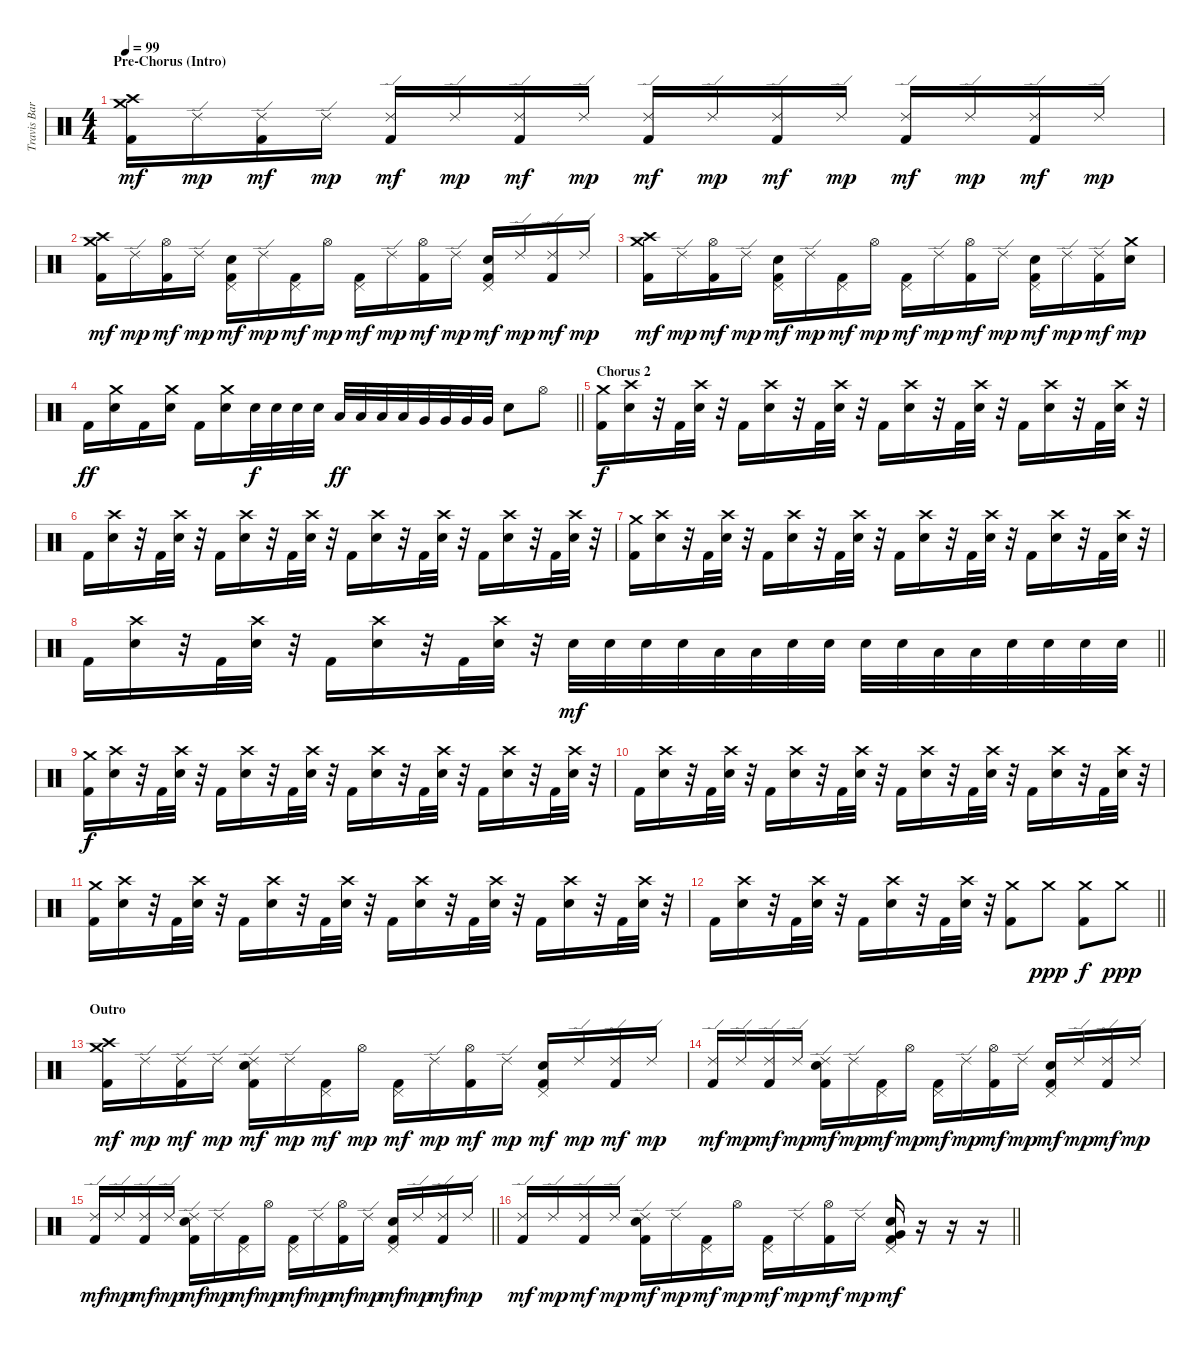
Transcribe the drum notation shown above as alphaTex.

\track ("Travis Barker" "Travis Bar") {instrument percussion}
\staff {score}
\articulation defaults
\ts (4 4)
\section ("" "Pre-Chorus (Intro)")
\tempo 99
\clef neutral
\ks c
("Crash medium (hit)" "Crash high (hit)" "Kick (hit) 2").16{dy mf} "Ride (edge) 2".16{dy mp} ("Ride (edge) 2" "Kick (hit) 2").16{dy mf} "Ride (edge) 2".16{dy mp} ("Ride (edge) 2" "Kick (hit) 2").16{dy mf} "Ride (edge) 2".16{dy mp} ("Ride (edge) 2" "Kick (hit) 2").16{dy mf} "Ride (edge) 2".16{dy mp} ("Ride (edge) 2" "Kick (hit) 2").16{dy mf} "Ride (edge) 2".16{dy mp} ("Ride (edge) 2" "Kick (hit) 2").16{dy mf} "Ride (edge) 2".16{dy mp} ("Ride (edge) 2" "Kick (hit) 2").16{dy mf} "Ride (edge) 2".16{dy mp} ("Ride (edge) 2" "Kick (hit) 2").16{dy mf} "Ride (edge) 2".16{dy mp} |
("Crash medium (hit)" "Crash high (hit)" "Kick (hit) 2").16{dy mf} "Ride (edge) 2".16{dy mp} ("Hi-Hat (open)" "Kick (hit) 2").16{dy mf} "Ride (edge) 2".16{dy mp} ("Pedal Hi-Hat (hit)" "Electric Snare (hit)" "Kick (hit) 2").16{dy mf} "Ride (edge) 2".16{dy mp} ("Pedal Hi-Hat (hit)" "Kick (hit) 2").16{dy mf} "Hi-Hat (open)".16{dy mp} ("Pedal Hi-Hat (hit)" "Kick (hit) 2").16{dy mf} "Ride (edge) 2".16{dy mp} ("Hi-Hat (open)" "Kick (hit) 2").16{dy mf} "Ride (edge) 2".16{dy mp} ("Pedal Hi-Hat (hit)" "Electric Snare (hit)" "Kick (hit) 2").16{dy mf} "Ride (edge) 2".16{dy mp} ("Ride (edge) 2" "Kick (hit) 2").16{dy mf} "Ride (edge) 2".16{dy mp} |
("Crash medium (hit)" "Crash high (hit)" "Kick (hit) 2").16{dy mf} "Ride (edge) 2".16{dy mp} ("Hi-Hat (open)" "Kick (hit) 2").16{dy mf} "Ride (edge) 2".16{dy mp} ("Pedal Hi-Hat (hit)" "Electric Snare (hit)" "Kick (hit) 2").16{dy mf} "Ride (edge) 2".16{dy mp} ("Pedal Hi-Hat (hit)" "Kick (hit) 2").16{dy mf} "Hi-Hat (open)".16{dy mp} ("Pedal Hi-Hat (hit)" "Kick (hit) 2").16{dy mf} "Ride (edge) 2".16{dy mp} ("Hi-Hat (open)" "Kick (hit) 2").16{dy mf} "Ride (edge) 2".16{dy mp} ("Pedal Hi-Hat (hit)" "Electric Snare (hit)" "Kick (hit) 2").16{dy mf} "Ride (edge) 2".16{dy mp} ("Ride (edge) 2" "Kick (hit) 2").16{dy mf} ("Crash medium (hit)" "Electric Snare (hit)").16{dy mp} |
\barLineRight lightlight "Kick (hit) 2".16{dy ff}
("Crash medium (hit)" "Electric Snare (hit)").16 "Kick (hit) 2".16 ("Crash medium (hit)" "Electric Snare (hit)").16 "Kick (hit) 2".16 ("Crash medium (hit)" "Electric Snare (hit)").16 "Electric Snare (hit)".32{dy f} "Electric Snare (hit)".32 "Electric Snare (hit)".32 "Electric Snare (hit)".32 "Low Tom (hit)".32{dy ff} "Low Tom (hit)".32 "Low Tom (hit)".32 "Low Tom (hit)".32 "Very Low Tom (hit)".32 "Very Low Tom (hit)".32 "Very Low Tom (hit)".32 "Very Low Tom (hit)".32 "Electric Snare (hit)".8 "Hi-Hat (open)".8 |
\section ("" "Chorus 2")
("Crash medium (hit)" "Kick (hit) 2").16{dy f} ("Crash high (hit)" "Electric Snare (hit)").16 r.32 "Kick (hit) 2".32 ("Crash high (hit)" "Electric Snare (hit)").32 r.32 "Kick (hit) 2".16 ("Crash high (hit)" "Electric Snare (hit)").16 r.32 "Kick (hit) 2".32 ("Crash high (hit)" "Electric Snare (hit)").32 r.32 "Kick (hit) 2".16 ("Crash high (hit)" "Electric Snare (hit)").16 r.32 "Kick (hit) 2".32 ("Crash high (hit)" "Electric Snare (hit)").32 r.32 "Kick (hit) 2".16 ("Crash high (hit)" "Electric Snare (hit)").16 r.32 "Kick (hit) 2".32 ("Crash high (hit)" "Electric Snare (hit)").32 r.32 |
"Kick (hit) 2".16 ("Crash high (hit)" "Electric Snare (hit)").16 r.32 "Kick (hit) 2".32 ("Crash high (hit)" "Electric Snare (hit)").32 r.32 "Kick (hit) 2".16 ("Crash high (hit)" "Electric Snare (hit)").16 r.32 "Kick (hit) 2".32 ("Crash high (hit)" "Electric Snare (hit)").32 r.32 "Kick (hit) 2".16 ("Crash high (hit)" "Electric Snare (hit)").16 r.32 "Kick (hit) 2".32 ("Crash high (hit)" "Electric Snare (hit)").32 r.32 "Kick (hit) 2".16 ("Crash high (hit)" "Electric Snare (hit)").16 r.32 "Kick (hit) 2".32 ("Crash high (hit)" "Electric Snare (hit)").32 r.32 |
("Crash medium (hit)" "Kick (hit) 2").16 ("Crash high (hit)" "Electric Snare (hit)").16 r.32 "Kick (hit) 2".32 ("Crash high (hit)" "Electric Snare (hit)").32 r.32 "Kick (hit) 2".16 ("Crash high (hit)" "Electric Snare (hit)").16 r.32 "Kick (hit) 2".32 ("Crash high (hit)" "Electric Snare (hit)").32 r.32 "Kick (hit) 2".16 ("Crash high (hit)" "Electric Snare (hit)").16 r.32 "Kick (hit) 2".32 ("Crash high (hit)" "Electric Snare (hit)").32 r.32 "Kick (hit) 2".16 ("Crash high (hit)" "Electric Snare (hit)").16 r.32 "Kick (hit) 2".32 ("Crash high (hit)" "Electric Snare (hit)").32 r.32 |
\barLineRight lightlight "Kick (hit) 2".16
("Crash high (hit)" "Electric Snare (hit)").16 r.32 "Kick (hit) 2".32 ("Crash high (hit)" "Electric Snare (hit)").32 r.32 "Kick (hit) 2".16 ("Crash high (hit)" "Electric Snare (hit)").16 r.32 "Kick (hit) 2".32 ("Crash high (hit)" "Electric Snare (hit)").32 r.32 "Electric Snare (hit)".32{dy mf} "Electric Snare (hit)".32 "Electric Snare (hit)".32 "Electric Snare (hit)".32 "Low Tom (hit)".32 "Low Tom (hit)".32 "Electric Snare (hit)".32 "Electric Snare (hit)".32 "Electric Snare (hit)".32 "Electric Snare (hit)".32 "Low Tom (hit)".32 "Low Tom (hit)".32 "Electric Snare (hit)".32 "Electric Snare (hit)".32 "Electric Snare (hit)".32 "Electric Snare (hit)".32 |
("Crash medium (hit)" "Kick (hit) 2").16{dy f} ("Crash high (hit)" "Electric Snare (hit)").16 r.32 "Kick (hit) 2".32 ("Crash high (hit)" "Electric Snare (hit)").32 r.32 "Kick (hit) 2".16 ("Crash high (hit)" "Electric Snare (hit)").16 r.32 "Kick (hit) 2".32 ("Crash high (hit)" "Electric Snare (hit)").32 r.32 "Kick (hit) 2".16 ("Crash high (hit)" "Electric Snare (hit)").16 r.32 "Kick (hit) 2".32 ("Crash high (hit)" "Electric Snare (hit)").32 r.32 "Kick (hit) 2".16 ("Crash high (hit)" "Electric Snare (hit)").16 r.32 "Kick (hit) 2".32 ("Crash high (hit)" "Electric Snare (hit)").32 r.32 |
"Kick (hit) 2".16 ("Crash high (hit)" "Electric Snare (hit)").16 r.32 "Kick (hit) 2".32 ("Crash high (hit)" "Electric Snare (hit)").32 r.32 "Kick (hit) 2".16 ("Crash high (hit)" "Electric Snare (hit)").16 r.32 "Kick (hit) 2".32 ("Crash high (hit)" "Electric Snare (hit)").32 r.32 "Kick (hit) 2".16 ("Crash high (hit)" "Electric Snare (hit)").16 r.32 "Kick (hit) 2".32 ("Crash high (hit)" "Electric Snare (hit)").32 r.32 "Kick (hit) 2".16 ("Crash high (hit)" "Electric Snare (hit)").16 r.32 "Kick (hit) 2".32 ("Crash high (hit)" "Electric Snare (hit)").32 r.32 |
("Crash medium (hit)" "Kick (hit) 2").16 ("Crash high (hit)" "Electric Snare (hit)").16 r.32 "Kick (hit) 2".32 ("Crash high (hit)" "Electric Snare (hit)").32 r.32 "Kick (hit) 2".16 ("Crash high (hit)" "Electric Snare (hit)").16 r.32 "Kick (hit) 2".32 ("Crash high (hit)" "Electric Snare (hit)").32 r.32 "Kick (hit) 2".16 ("Crash high (hit)" "Electric Snare (hit)").16 r.32 "Kick (hit) 2".32 ("Crash high (hit)" "Electric Snare (hit)").32 r.32 "Kick (hit) 2".16 ("Crash high (hit)" "Electric Snare (hit)").16 r.32 "Kick (hit) 2".32 ("Crash high (hit)" "Electric Snare (hit)").32 r.32 |
\barLineRight lightlight "Kick (hit) 2".16
("Crash high (hit)" "Electric Snare (hit)").16 r.32 "Kick (hit) 2".32 ("Crash high (hit)" "Electric Snare (hit)").32 r.32 "Kick (hit) 2".16 ("Crash high (hit)" "Electric Snare (hit)").16 r.32 "Kick (hit) 2".32 ("Crash high (hit)" "Electric Snare (hit)").32 r.32 ("Crash medium (hit)" "Kick (hit) 2").8 "Crash medium (hit)".8{dy ppp} ("Crash medium (hit)" "Kick (hit) 2").8{dy f} "Crash medium (hit)".8{dy ppp} |
\section ("" "Outro")
("Crash medium (hit)" "Crash high (hit)" "Kick (hit) 2").16{dy mf} "Ride (edge) 2".16{dy mp} ("Ride (edge) 2" "Kick (hit) 2").16{dy mf} "Ride (edge) 2".16{dy mp} ("Ride (edge) 2" "Electric Snare (hit)" "Kick (hit) 2").16{dy mf} "Ride (edge) 2".16{dy mp} ("Pedal Hi-Hat (hit)" "Kick (hit) 2").16{dy mf} "Hi-Hat (open)".16{dy mp} ("Pedal Hi-Hat (hit)" "Kick (hit) 2").16{dy mf} "Ride (edge) 2".16{dy mp} ("Hi-Hat (open)" "Kick (hit) 2").16{dy mf} "Ride (edge) 2".16{dy mp} ("Pedal Hi-Hat (hit)" "Electric Snare (hit)" "Kick (hit) 2").16{dy mf} "Ride (edge) 2".16{dy mp} ("Ride (edge) 2" "Kick (hit) 2").16{dy mf} "Ride (edge) 2".16{dy mp} |
("Ride (edge) 2" "Kick (hit) 2").16{dy mf} "Ride (edge) 2".16{dy mp} ("Ride (edge) 2" "Kick (hit) 2").16{dy mf} "Ride (edge) 2".16{dy mp} ("Ride (edge) 2" "Electric Snare (hit)" "Kick (hit) 2").16{dy mf} "Ride (edge) 2".16{dy mp} ("Pedal Hi-Hat (hit)" "Kick (hit) 2").16{dy mf} "Hi-Hat (open)".16{dy mp} ("Pedal Hi-Hat (hit)" "Kick (hit) 2").16{dy mf} "Ride (edge) 2".16{dy mp} ("Hi-Hat (open)" "Kick (hit) 2").16{dy mf} "Ride (edge) 2".16{dy mp} ("Pedal Hi-Hat (hit)" "Electric Snare (hit)" "Kick (hit) 2").16{dy mf} "Ride (edge) 2".16{dy mp} ("Ride (edge) 2" "Kick (hit) 2").16{dy mf} "Ride (edge) 2".16{dy mp} |
\barLineRight lightlight
("Ride (edge) 2" "Kick (hit) 2").16{dy mf} "Ride (edge) 2".16{dy mp} ("Ride (edge) 2" "Kick (hit) 2").16{dy mf} "Ride (edge) 2".16{dy mp} ("Ride (edge) 2" "Electric Snare (hit)" "Kick (hit) 2").16{dy mf} "Ride (edge) 2".16{dy mp} ("Pedal Hi-Hat (hit)" "Kick (hit) 2").16{dy mf} "Hi-Hat (open)".16{dy mp} ("Pedal Hi-Hat (hit)" "Kick (hit) 2").16{dy mf} "Ride (edge) 2".16{dy mp} ("Hi-Hat (open)" "Kick (hit) 2").16{dy mf} "Ride (edge) 2".16{dy mp} ("Pedal Hi-Hat (hit)" "Electric Snare (hit)" "Kick (hit) 2").16{dy mf} "Ride (edge) 2".16{dy mp} ("Ride (edge) 2" "Kick (hit) 2").16{dy mf} "Ride (edge) 2".16{dy mp} |
\barLineRight lightlight
("Ride (edge) 2" "Kick (hit) 2").16{dy mf} "Ride (edge) 2".16{dy mp} ("Ride (edge) 2" "Kick (hit) 2").16{dy mf} "Ride (edge) 2".16{dy mp} ("Ride (edge) 2" "Electric Snare (hit)" "Kick (hit) 2").16{dy mf} "Ride (edge) 2".16{dy mp} ("Pedal Hi-Hat (hit)" "Kick (hit) 2").16{dy mf} "Hi-Hat (open)".16{dy mp} ("Pedal Hi-Hat (hit)" "Kick (hit) 2").16{dy mf} "Ride (edge) 2".16{dy mp} ("Hi-Hat (open)" "Kick (hit) 2").16{dy mf} "Ride (edge) 2".16{dy mp} ("Pedal Hi-Hat (hit)" "Electric Snare (hit)" "Very Low Tom (hit)" "Kick (hit) 2").16{dy mf} r.16 r.16 r.16
